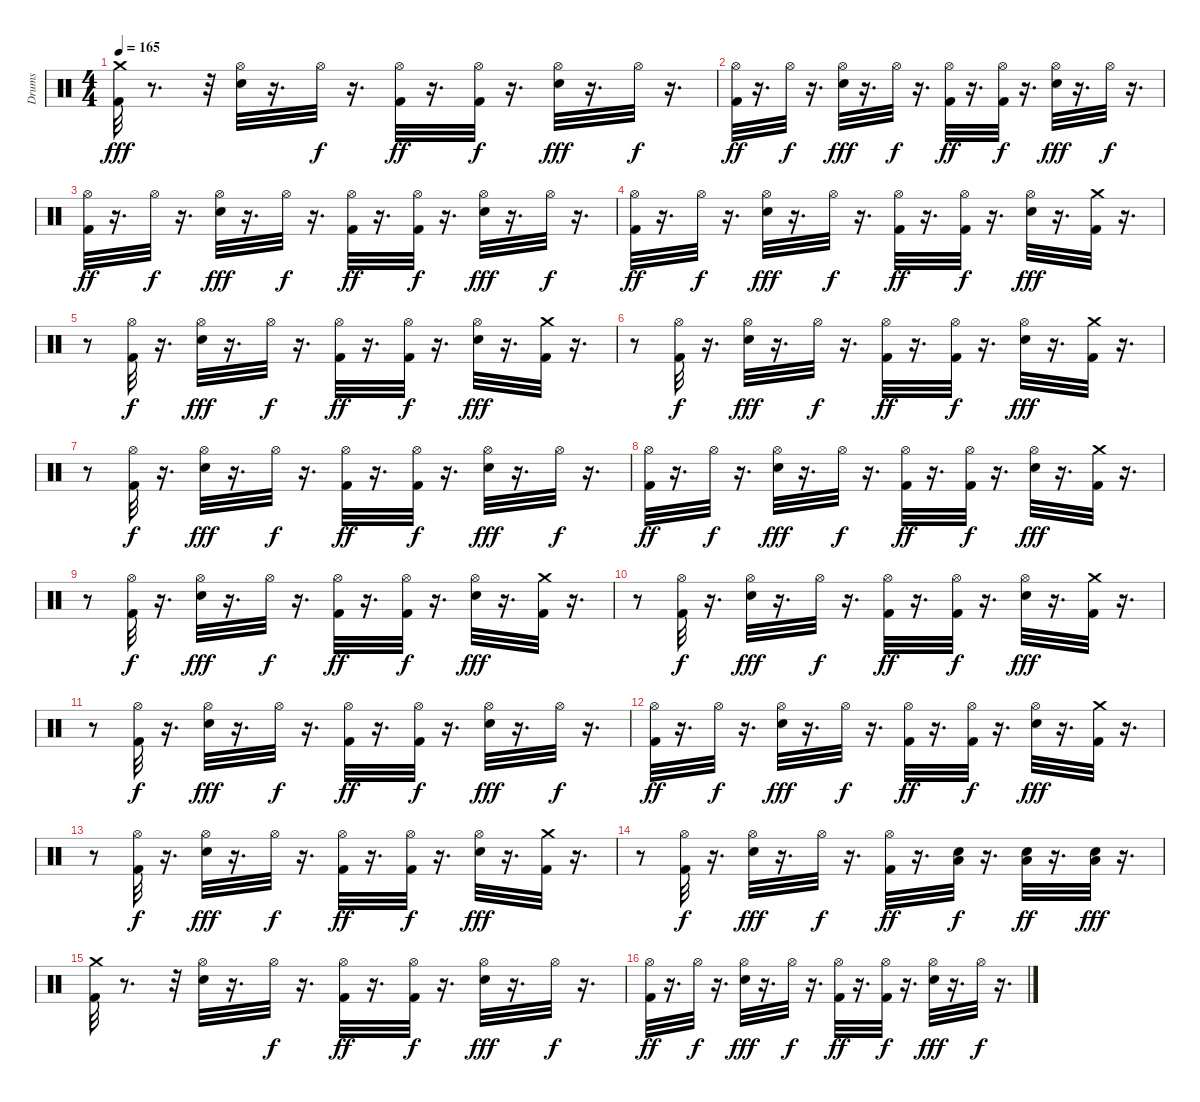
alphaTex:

\track ("Drums" "Drums") {instrument percussion}
\staff {score}
\articulation defaults
\ts (4 4)
\tempo 165
\clef neutral
\ks c
("Kick (hit) 2" "Crash medium (hit)").32{dy fff} r.8{d} r.32 ("Snare (hit) 2" "Hi-Hat (open)").32 r.16{d} "Hi-Hat (open)".32{dy f} r.16{d} ("Kick (hit) 2" "Hi-Hat (open)").32{dy ff} r.16{d} ("Kick (hit) 2" "Hi-Hat (open)").32{dy f} r.16{d} ("Snare (hit) 2" "Hi-Hat (open)").32{dy fff} r.16{d} "Hi-Hat (open)".32{dy f} r.16{d} |
("Kick (hit) 2" "Hi-Hat (open)").32{dy ff} r.16{d} "Hi-Hat (open)".32{dy f} r.16{d} ("Snare (hit) 2" "Hi-Hat (open)").32{dy fff} r.16{d} "Hi-Hat (open)".32{dy f} r.16{d} ("Kick (hit) 2" "Hi-Hat (open)").32{dy ff} r.16{d} ("Kick (hit) 2" "Hi-Hat (open)").32{dy f} r.16{d} ("Snare (hit) 2" "Hi-Hat (open)").32{dy fff} r.16{d} "Hi-Hat (open)".32{dy f} r.16{d} |
("Kick (hit) 2" "Hi-Hat (open)").32{dy ff} r.16{d} "Hi-Hat (open)".32{dy f} r.16{d} ("Snare (hit) 2" "Hi-Hat (open)").32{dy fff} r.16{d} "Hi-Hat (open)".32{dy f} r.16{d} ("Kick (hit) 2" "Hi-Hat (open)").32{dy ff} r.16{d} ("Kick (hit) 2" "Hi-Hat (open)").32{dy f} r.16{d} ("Snare (hit) 2" "Hi-Hat (open)").32{dy fff} r.16{d} "Hi-Hat (open)".32{dy f} r.16{d} |
("Kick (hit) 2" "Hi-Hat (open)").32{dy ff} r.16{d} "Hi-Hat (open)".32{dy f} r.16{d} ("Snare (hit) 2" "Hi-Hat (open)").32{dy fff} r.16{d} "Hi-Hat (open)".32{dy f} r.16{d} ("Kick (hit) 2" "Hi-Hat (open)").32{dy ff} r.16{d} ("Hi-Hat (open)" "Kick (hit) 2").32{dy f} r.16{d} ("Snare (hit) 2" "Hi-Hat (open)").32{dy fff} r.16{d} ("Kick (hit) 2" "Crash medium (hit)").32 r.16{d} |
r.8 ("Kick (hit) 2" "Hi-Hat (open)").32{dy f} r.16{d} ("Snare (hit) 2" "Hi-Hat (open)").32{dy fff} r.16{d} "Hi-Hat (open)".32{dy f} r.16{d} ("Kick (hit) 2" "Hi-Hat (open)").32{dy ff} r.16{d} ("Kick (hit) 2" "Hi-Hat (open)").32{dy f} r.16{d} ("Snare (hit) 2" "Hi-Hat (open)").32{dy fff} r.16{d} ("Kick (hit) 2" "Crash medium (hit)").32 r.16{d} |
r.8 ("Kick (hit) 2" "Hi-Hat (open)").32{dy f} r.16{d} ("Snare (hit) 2" "Hi-Hat (open)").32{dy fff} r.16{d} "Hi-Hat (open)".32{dy f} r.16{d} ("Kick (hit) 2" "Hi-Hat (open)").32{dy ff} r.16{d} ("Kick (hit) 2" "Hi-Hat (open)").32{dy f} r.16{d} ("Snare (hit) 2" "Hi-Hat (open)").32{dy fff} r.16{d} ("Kick (hit) 2" "Crash medium (hit)").32 r.16{d} |
r.8 ("Kick (hit) 2" "Hi-Hat (open)").32{dy f} r.16{d} ("Snare (hit) 2" "Hi-Hat (open)").32{dy fff} r.16{d} "Hi-Hat (open)".32{dy f} r.16{d} ("Kick (hit) 2" "Hi-Hat (open)").32{dy ff} r.16{d} ("Kick (hit) 2" "Hi-Hat (open)").32{dy f} r.16{d} ("Snare (hit) 2" "Hi-Hat (open)").32{dy fff} r.16{d} "Hi-Hat (open)".32{dy f} r.16{d} |
("Kick (hit) 2" "Hi-Hat (open)").32{dy ff} r.16{d} "Hi-Hat (open)".32{dy f} r.16{d} ("Snare (hit) 2" "Hi-Hat (open)").32{dy fff} r.16{d} "Hi-Hat (open)".32{dy f} r.16{d} ("Kick (hit) 2" "Hi-Hat (open)").32{dy ff} r.16{d} ("Kick (hit) 2" "Hi-Hat (open)").32{dy f} r.16{d} ("Snare (hit) 2" "Hi-Hat (open)").32{dy fff} r.16{d} ("Kick (hit) 2" "Crash medium (hit)").32 r.16{d} |
r.8 ("Kick (hit) 2" "Hi-Hat (open)").32{dy f} r.16{d} ("Snare (hit) 2" "Hi-Hat (open)").32{dy fff} r.16{d} "Hi-Hat (open)".32{dy f} r.16{d} ("Kick (hit) 2" "Hi-Hat (open)").32{dy ff} r.16{d} ("Kick (hit) 2" "Hi-Hat (open)").32{dy f} r.16{d} ("Snare (hit) 2" "Hi-Hat (open)").32{dy fff} r.16{d} ("Kick (hit) 2" "Crash medium (hit)").32 r.16{d} |
r.8 ("Kick (hit) 2" "Hi-Hat (open)").32{dy f} r.16{d} ("Snare (hit) 2" "Hi-Hat (open)").32{dy fff} r.16{d} "Hi-Hat (open)".32{dy f} r.16{d} ("Kick (hit) 2" "Hi-Hat (open)").32{dy ff} r.16{d} ("Kick (hit) 2" "Hi-Hat (open)").32{dy f} r.16{d} ("Snare (hit) 2" "Hi-Hat (open)").32{dy fff} r.16{d} ("Kick (hit) 2" "Crash medium (hit)").32 r.16{d} |
r.8 ("Kick (hit) 2" "Hi-Hat (open)").32{dy f} r.16{d} ("Snare (hit) 2" "Hi-Hat (open)").32{dy fff} r.16{d} "Hi-Hat (open)".32{dy f} r.16{d} ("Kick (hit) 2" "Hi-Hat (open)").32{dy ff} r.16{d} ("Kick (hit) 2" "Hi-Hat (open)").32{dy f} r.16{d} ("Snare (hit) 2" "Hi-Hat (open)").32{dy fff} r.16{d} "Hi-Hat (open)".32{dy f} r.16{d} |
("Kick (hit) 2" "Hi-Hat (open)").32{dy ff} r.16{d} "Hi-Hat (open)".32{dy f} r.16{d} ("Snare (hit) 2" "Hi-Hat (open)").32{dy fff} r.16{d} "Hi-Hat (open)".32{dy f} r.16{d} ("Kick (hit) 2" "Hi-Hat (open)").32{dy ff} r.16{d} ("Kick (hit) 2" "Hi-Hat (open)").32{dy f} r.16{d} ("Snare (hit) 2" "Hi-Hat (open)").32{dy fff} r.16{d} ("Kick (hit) 2" "Crash medium (hit)").32 r.16{d} |
r.8 ("Kick (hit) 2" "Hi-Hat (open)").32{dy f} r.16{d} ("Snare (hit) 2" "Hi-Hat (open)").32{dy fff} r.16{d} "Hi-Hat (open)".32{dy f} r.16{d} ("Kick (hit) 2" "Hi-Hat (open)").32{dy ff} r.16{d} ("Kick (hit) 2" "Hi-Hat (open)").32{dy f} r.16{d} ("Snare (hit) 2" "Hi-Hat (open)").32{dy fff} r.16{d} ("Kick (hit) 2" "Crash medium (hit)").32 r.16{d} |
r.8 ("Kick (hit) 2" "Hi-Hat (open)").32{dy f} r.16{d} ("Snare (hit) 2" "Hi-Hat (open)").32{dy fff} r.16{d} "Hi-Hat (open)".32{dy f} r.16{d} ("Kick (hit) 2" "Hi-Hat (open)").32{dy ff} r.16{d} ("Low Floor Tom (hit)" "Snare (hit) 2").32{dy f} r.16{d} ("Low Floor Tom (hit)" "Snare (hit) 2").32{dy ff} r.16{d} ("Low Floor Tom (hit)" "Snare (hit) 2").32{dy fff} r.16{d} |
("Kick (hit) 2" "Crash medium (hit)").32 r.8{d} r.32 ("Snare (hit) 2" "Hi-Hat (open)").32 r.16{d} "Hi-Hat (open)".32{dy f} r.16{d} ("Kick (hit) 2" "Hi-Hat (open)").32{dy ff} r.16{d} ("Kick (hit) 2" "Hi-Hat (open)").32{dy f} r.16{d} ("Snare (hit) 2" "Hi-Hat (open)").32{dy fff} r.16{d} "Hi-Hat (open)".32{dy f} r.16{d} |
("Kick (hit) 2" "Hi-Hat (open)").32{dy ff} r.16{d} "Hi-Hat (open)".32{dy f} r.16{d} ("Snare (hit) 2" "Hi-Hat (open)").32{dy fff} r.16{d} "Hi-Hat (open)".32{dy f} r.16{d} ("Kick (hit) 2" "Hi-Hat (open)").32{dy ff} r.16{d} ("Kick (hit) 2" "Hi-Hat (open)").32{dy f} r.16{d} ("Snare (hit) 2" "Hi-Hat (open)").32{dy fff} r.16{d} "Hi-Hat (open)".32{dy f} r.16{d}
